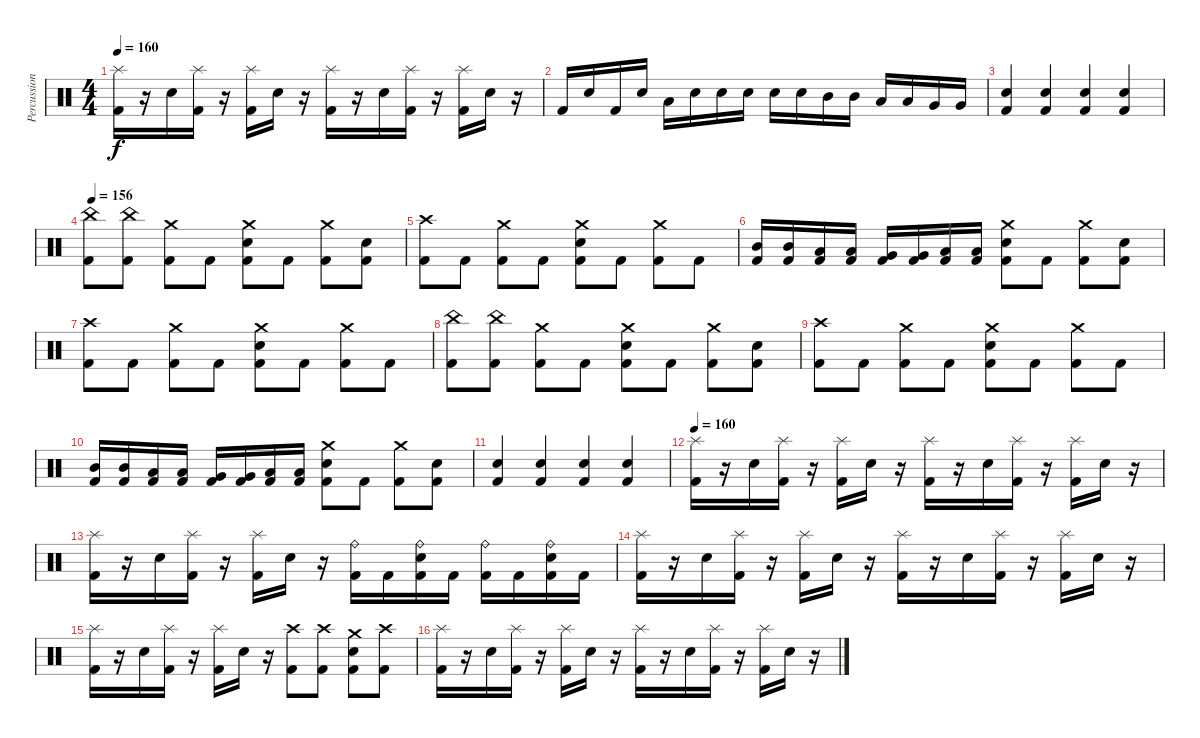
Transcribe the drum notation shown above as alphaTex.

\track ("Percussion" "Percussion") {instrument percussion}
\staff {score}
\articulation defaults
\ts (4 4)
\tempo 160
\clef neutral
\ks c
("Splash (hit)" "Kick (hit) 2").16{dy f} r.16 "Snare (hit) 2".16 ("Splash (hit)" "Kick (hit) 2").16 r.16 ("Splash (hit)" "Kick (hit) 2").16 "Snare (hit) 2".16 r.16 ("Splash (hit)" "Kick (hit) 2").16 r.16 "Snare (hit) 2".16 ("Splash (hit)" "Kick (hit) 2").16 r.16 ("Splash (hit)" "Kick (hit) 2").16 "Snare (hit) 2".16 r.16 |
"Kick (hit) 2".16 "Snare (hit) 2".16 "Kick (hit) 2".16 "Snare (hit) 2".16 "Low Floor Tom (hit)".16 "Snare (hit) 2".16 "Snare (hit) 2".16 "Snare (hit) 2".16 "Snare (hit) 2".16 "Snare (hit) 2".16 "Mid Tom (hit)".16 "Mid Tom (hit)".16 "Low Tom (hit)".16 "Low Tom (hit)".16 "Very Low Tom (hit)".16 "Very Low Tom (hit)".16 |
("Snare (hit)" "Kick (hit) 2").4 ("Snare (hit)" "Kick (hit) 2").4 ("Snare (hit)" "Kick (hit) 2").4 ("Snare (hit)" "Kick (hit) 2").4 |
\tempo 156
("China (hit)" "Kick (hit) 2").8 ("China (hit)" "Kick (hit) 2").8 ("Crash medium (hit)" "Kick (hit) 2").8 "Kick (hit) 2".8 ("Crash medium (hit)" "Snare (hit) 2" "Kick (hit) 2").8 "Kick (hit) 2".8 ("Crash medium (hit)" "Kick (hit) 2").8 ("Snare (hit)" "Kick (hit) 2").8 |
("Crash high (hit)" "Kick (hit) 2").8 "Kick (hit) 2".8 ("Crash medium (hit)" "Kick (hit) 2").8 "Kick (hit) 2".8 ("Crash medium (hit)" "Snare (hit) 2" "Kick (hit) 2").8 "Kick (hit) 2".8 ("Crash medium (hit)" "Kick (hit) 2").8 "Kick (hit) 2".8 |
("Mid Tom (hit)" "Kick (hit) 2").16 ("Mid Tom (hit)" "Kick (hit) 2").16 ("Low Tom (hit)" "Kick (hit) 2").16 ("Low Tom (hit)" "Kick (hit) 2").16 ("Very Low Tom (hit)" "Kick (hit) 2").16 ("Very Low Tom (hit)" "Kick (hit) 2").16 ("Low Floor Tom (hit)" "Kick (hit) 2").16 ("Low Floor Tom (hit)" "Kick (hit) 2").16 ("Crash medium (hit)" "Snare (hit) 2" "Kick (hit) 2").8 "Kick (hit) 2".8 ("Crash medium (hit)" "Kick (hit) 2").8 ("Snare (hit)" "Kick (hit) 2").8 |
("Crash high (hit)" "Kick (hit) 2").8 "Kick (hit) 2".8 ("Crash medium (hit)" "Kick (hit) 2").8 "Kick (hit) 2".8 ("Crash medium (hit)" "Snare (hit) 2" "Kick (hit) 2").8 "Kick (hit) 2".8 ("Crash medium (hit)" "Kick (hit) 2").8 "Kick (hit) 2".8 |
("China (hit)" "Kick (hit) 2").8 ("China (hit)" "Kick (hit) 2").8 ("Crash medium (hit)" "Kick (hit) 2").8 "Kick (hit) 2".8 ("Crash medium (hit)" "Snare (hit) 2" "Kick (hit) 2").8 "Kick (hit) 2".8 ("Crash medium (hit)" "Kick (hit) 2").8 ("Snare (hit)" "Kick (hit) 2").8 |
("Crash high (hit)" "Kick (hit) 2").8 "Kick (hit) 2".8 ("Crash medium (hit)" "Kick (hit) 2").8 "Kick (hit) 2".8 ("Crash medium (hit)" "Snare (hit) 2" "Kick (hit) 2").8 "Kick (hit) 2".8 ("Crash medium (hit)" "Kick (hit) 2").8 "Kick (hit) 2".8 |
("Mid Tom (hit)" "Kick (hit) 2").16 ("Mid Tom (hit)" "Kick (hit) 2").16 ("Low Tom (hit)" "Kick (hit) 2").16 ("Low Tom (hit)" "Kick (hit) 2").16 ("Very Low Tom (hit)" "Kick (hit) 2").16 ("Very Low Tom (hit)" "Kick (hit) 2").16 ("Low Floor Tom (hit)" "Kick (hit) 2").16 ("Low Floor Tom (hit)" "Kick (hit) 2").16 ("Crash medium (hit)" "Snare (hit) 2" "Kick (hit) 2").8 "Kick (hit) 2".8 ("Crash medium (hit)" "Kick (hit) 2").8 ("Snare (hit)" "Kick (hit) 2").8 |
("Snare (hit)" "Kick (hit) 2").4 ("Snare (hit)" "Kick (hit) 2").4 ("Snare (hit)" "Kick (hit) 2").4 ("Snare (hit)" "Kick (hit) 2").4 |
\tempo 160
("Splash (hit)" "Kick (hit) 2").16 r.16 "Snare (hit) 2".16 ("Splash (hit)" "Kick (hit) 2").16 r.16 ("Splash (hit)" "Kick (hit) 2").16 "Snare (hit) 2".16 r.16 ("Splash (hit)" "Kick (hit) 2").16 r.16 "Snare (hit) 2".16 ("Splash (hit)" "Kick (hit) 2").16 r.16 ("Splash (hit)" "Kick (hit) 2").16 "Snare (hit) 2".16 r.16 |
("Splash (hit)" "Kick (hit) 2").16 r.16 "Snare (hit) 2".16 ("Splash (hit)" "Kick (hit) 2").16 r.16 ("Splash (hit)" "Kick (hit) 2").16 "Snare (hit) 2".16 r.16 ("Ride (bell)" "Kick (hit) 2").16 "Kick (hit) 2".16 ("Ride (bell)" "Snare (hit) 2" "Kick (hit) 2").16 "Kick (hit) 2".16 ("Ride (bell)" "Kick (hit) 2").16 "Kick (hit) 2".16 ("Ride (bell)" "Snare (hit) 2" "Kick (hit) 2").16 "Kick (hit) 2".16 |
("Splash (hit)" "Kick (hit) 2").16 r.16 "Snare (hit) 2".16 ("Splash (hit)" "Kick (hit) 2").16 r.16 ("Splash (hit)" "Kick (hit) 2").16 "Snare (hit) 2".16 r.16 ("Splash (hit)" "Kick (hit) 2").16 r.16 "Snare (hit) 2".16 ("Splash (hit)" "Kick (hit) 2").16 r.16 ("Splash (hit)" "Kick (hit) 2").16 "Snare (hit) 2".16 r.16 |
("Splash (hit)" "Kick (hit) 2").16 r.16 "Snare (hit) 2".16 ("Splash (hit)" "Kick (hit) 2").16 r.16 ("Splash (hit)" "Kick (hit) 2").16 "Snare (hit) 2".16 r.16 ("Crash high (hit)" "Kick (hit) 2").8 ("Crash high (hit)" "Kick (hit) 2").8 ("Crash medium (hit)" "Snare (hit) 2" "Kick (hit) 2").8 ("Crash high (hit)" "Kick (hit) 2").8 |
("Splash (hit)" "Kick (hit) 2").16 r.16 "Snare (hit) 2".16 ("Splash (hit)" "Kick (hit) 2").16 r.16 ("Splash (hit)" "Kick (hit) 2").16 "Snare (hit) 2".16 r.16 ("Splash (hit)" "Kick (hit) 2").16 r.16 "Snare (hit) 2".16 ("Splash (hit)" "Kick (hit) 2").16 r.16 ("Splash (hit)" "Kick (hit) 2").16 "Snare (hit) 2".16 r.16
